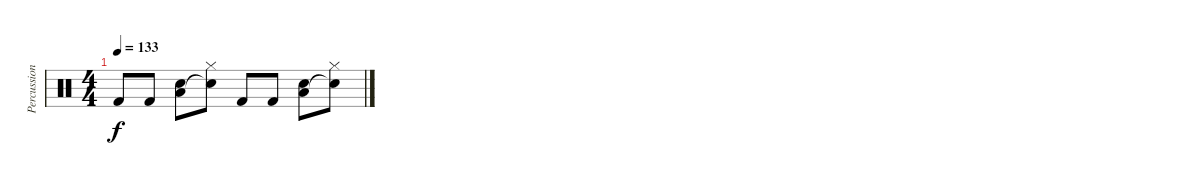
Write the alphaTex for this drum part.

\track ("Percussions" "Percussion") {instrument percussion}
\staff {score}
\articulation defaults
\ts (4 4)
\tempo 133
\clef neutral
\ks c "Kick (hit) 2".8{dy f} "Kick (hit) 2".8
("Snare (hit) 2" "Low Floor Tom (hit)").8 ("Hi-Hat (closed)" "Snare (hit)"{t}).8 "Kick (hit) 2".8 "Kick (hit) 2".8 ("Snare (hit) 2" "Low Floor Tom (hit)").8 ("Hi-Hat (closed)" "Snare (hit)"{t}).8
